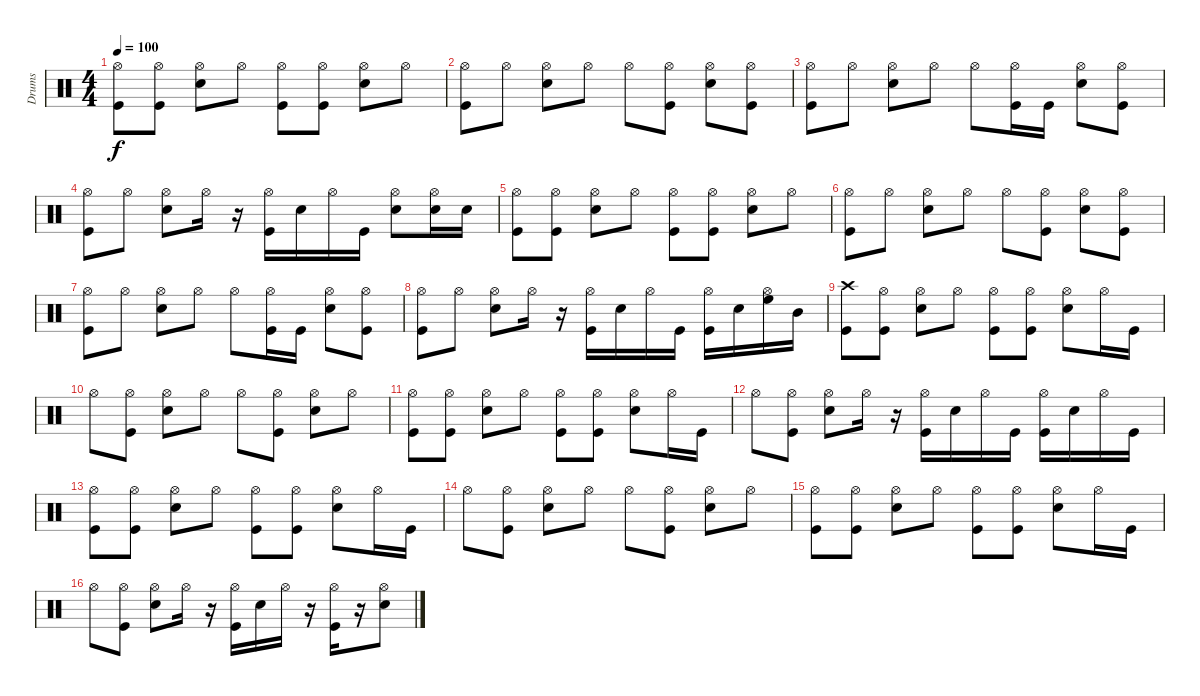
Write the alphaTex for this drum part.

\track ("Drums" "Drums") {instrument percussion}
\staff {score}
\articulation defaults
\ts (4 4)
\tempo 100
\clef neutral
\ks c
("Kick (hit)" "Hi-Hat (open)").8{dy f} ("Kick (hit)" "Hi-Hat (open)").8 ("Electric Snare (hit)" "Hi-Hat (open)").8 "Hi-Hat (open)".8 ("Kick (hit)" "Hi-Hat (open)").8 ("Kick (hit)" "Hi-Hat (open)").8 ("Electric Snare (hit)" "Hi-Hat (open)").8 "Hi-Hat (open)".8 |
("Kick (hit)" "Hi-Hat (open)").8 "Hi-Hat (open)".8 ("Electric Snare (hit)" "Hi-Hat (open)").8 "Hi-Hat (open)".8 "Hi-Hat (open)".8 ("Kick (hit)" "Hi-Hat (open)").8 ("Electric Snare (hit)" "Hi-Hat (open)").8 ("Kick (hit)" "Hi-Hat (open)").8 |
("Kick (hit)" "Hi-Hat (open)").8 "Hi-Hat (open)".8 ("Electric Snare (hit)" "Hi-Hat (open)").8 "Hi-Hat (open)".8 "Hi-Hat (open)".8 ("Kick (hit)" "Hi-Hat (open)").16 "Kick (hit)".16 ("Electric Snare (hit)" "Hi-Hat (open)").8 ("Kick (hit)" "Hi-Hat (open)").8 |
("Kick (hit)" "Hi-Hat (open)").8 "Hi-Hat (open)".8 ("Electric Snare (hit)" "Hi-Hat (open)").8 "Hi-Hat (open)".16 r.16 ("Kick (hit)" "Hi-Hat (open)").16 "Electric Snare (hit)".16 "Hi-Hat (open)".16 "Kick (hit)".16 ("Electric Snare (hit)" "Hi-Hat (open)").8 ("Electric Snare (hit)" "Hi-Hat (open)").16 "Electric Snare (hit)".16 |
("Kick (hit)" "Hi-Hat (open)").8 ("Kick (hit)" "Hi-Hat (open)").8 ("Electric Snare (hit)" "Hi-Hat (open)").8 "Hi-Hat (open)".8 ("Kick (hit)" "Hi-Hat (open)").8 ("Kick (hit)" "Hi-Hat (open)").8 ("Electric Snare (hit)" "Hi-Hat (open)").8 "Hi-Hat (open)".8 |
("Kick (hit)" "Hi-Hat (open)").8 "Hi-Hat (open)".8 ("Electric Snare (hit)" "Hi-Hat (open)").8 "Hi-Hat (open)".8 "Hi-Hat (open)".8 ("Kick (hit)" "Hi-Hat (open)").8 ("Electric Snare (hit)" "Hi-Hat (open)").8 ("Kick (hit)" "Hi-Hat (open)").8 |
("Kick (hit)" "Hi-Hat (open)").8 "Hi-Hat (open)".8 ("Electric Snare (hit)" "Hi-Hat (open)").8 "Hi-Hat (open)".8 "Hi-Hat (open)".8 ("Kick (hit)" "Hi-Hat (open)").16 "Kick (hit)".16 ("Electric Snare (hit)" "Hi-Hat (open)").8 ("Kick (hit)" "Hi-Hat (open)").8 |
("Kick (hit)" "Hi-Hat (open)").8 "Hi-Hat (open)".8 ("Electric Snare (hit)" "Hi-Hat (open)").8 "Hi-Hat (open)".16 r.16 ("Kick (hit)" "Hi-Hat (open)").16 "Electric Snare (hit)".16 "Hi-Hat (open)".16 "Kick (hit)".16 ("Kick (hit)" "Hi-Hat (open)").16 "Electric Snare (hit)".16 ("High Floor Tom (hit)" "Hi-Hat (open)").16 "Mid Tom (hit)".16 |
("Kick (hit)" "Crash high (hit)").8 ("Kick (hit)" "Hi-Hat (open)").8 ("Electric Snare (hit)" "Hi-Hat (open)").8 "Hi-Hat (open)".8 ("Kick (hit)" "Hi-Hat (open)").8 ("Kick (hit)" "Hi-Hat (open)").8 ("Electric Snare (hit)" "Hi-Hat (open)").8 "Hi-Hat (open)".16 "Kick (hit)".16 |
"Hi-Hat (open)".8 ("Kick (hit)" "Hi-Hat (open)").8 ("Electric Snare (hit)" "Hi-Hat (open)").8 "Hi-Hat (open)".8 "Hi-Hat (open)".8 ("Kick (hit)" "Hi-Hat (open)").8 ("Electric Snare (hit)" "Hi-Hat (open)").8 "Hi-Hat (open)".8 |
("Kick (hit)" "Hi-Hat (open)").8 ("Kick (hit)" "Hi-Hat (open)").8 ("Electric Snare (hit)" "Hi-Hat (open)").8 "Hi-Hat (open)".8 ("Kick (hit)" "Hi-Hat (open)").8 ("Kick (hit)" "Hi-Hat (open)").8 ("Electric Snare (hit)" "Hi-Hat (open)").8 "Hi-Hat (open)".16 "Kick (hit)".16 |
"Hi-Hat (open)".8 ("Kick (hit)" "Hi-Hat (open)").8 ("Electric Snare (hit)" "Hi-Hat (open)").8 "Hi-Hat (open)".16 r.16 ("Kick (hit)" "Hi-Hat (open)").16 "Electric Snare (hit)".16 "Hi-Hat (open)".16 "Kick (hit)".16 ("Kick (hit)" "Hi-Hat (open)").16 "Electric Snare (hit)".16 "Hi-Hat (open)".16 "Kick (hit)".16 |
("Kick (hit)" "Hi-Hat (open)").8 ("Kick (hit)" "Hi-Hat (open)").8 ("Electric Snare (hit)" "Hi-Hat (open)").8 "Hi-Hat (open)".8 ("Kick (hit)" "Hi-Hat (open)").8 ("Kick (hit)" "Hi-Hat (open)").8 ("Electric Snare (hit)" "Hi-Hat (open)").8 "Hi-Hat (open)".16 "Kick (hit)".16 |
"Hi-Hat (open)".8 ("Kick (hit)" "Hi-Hat (open)").8 ("Electric Snare (hit)" "Hi-Hat (open)").8 "Hi-Hat (open)".8 "Hi-Hat (open)".8 ("Kick (hit)" "Hi-Hat (open)").8 ("Electric Snare (hit)" "Hi-Hat (open)").8 "Hi-Hat (open)".8 |
("Kick (hit)" "Hi-Hat (open)").8 ("Kick (hit)" "Hi-Hat (open)").8 ("Electric Snare (hit)" "Hi-Hat (open)").8 "Hi-Hat (open)".8 ("Kick (hit)" "Hi-Hat (open)").8 ("Kick (hit)" "Hi-Hat (open)").8 ("Electric Snare (hit)" "Hi-Hat (open)").8 "Hi-Hat (open)".16 "Kick (hit)".16 |
"Hi-Hat (open)".8 ("Kick (hit)" "Hi-Hat (open)").8 ("Electric Snare (hit)" "Hi-Hat (open)").8 "Hi-Hat (open)".16 r.16 ("Kick (hit)" "Hi-Hat (open)").16 "Electric Snare (hit)".16 "Hi-Hat (open)".16 r.16 ("Kick (hit)" "Hi-Hat (open)").16 r.16 ("Electric Snare (hit)" "Hi-Hat (open)").8
